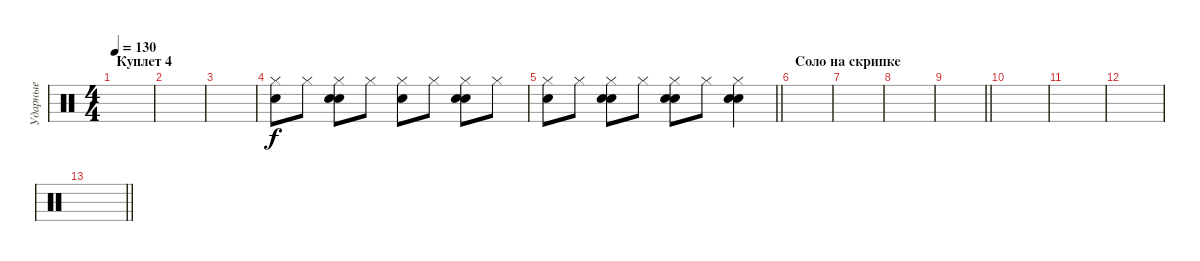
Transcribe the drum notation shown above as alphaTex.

\track ("Ударные" "Ударные") {instrument percussion}
\staff {score}
\articulation defaults
\ts (4 4)
\section ("" "Куплет 4")
\tempo 130
\clef neutral
\ks c
|
|
|
("Hi-Hat (closed)" "Snare (hit) 2").8 "Hi-Hat (closed)".8 ("Hi-Hat (closed)" "Snare (hit) 2" "Electric Snare (hit)").8 "Hi-Hat (closed)".8 ("Hi-Hat (closed)" "Snare (hit) 2").8 "Hi-Hat (closed)".8 ("Hi-Hat (closed)" "Snare (hit) 2" "Electric Snare (hit)").8 "Hi-Hat (closed)".8 |
\barLineRight lightlight
("Hi-Hat (closed)" "Snare (hit) 2").8 "Hi-Hat (closed)".8 ("Hi-Hat (closed)" "Snare (hit) 2" "Electric Snare (hit)").8 "Hi-Hat (closed)".8 ("Hi-Hat (closed)" "Snare (hit) 2" "Electric Snare (hit)").8 "Hi-Hat (closed)".8 ("Hi-Hat (closed)" "Snare (hit) 2" "Snare (hit) 2").4 |
\section ("" "Соло на скрипке")
|
|
|
\barLineRight lightlight
|
|
|
|
\barLineRight lightlight
